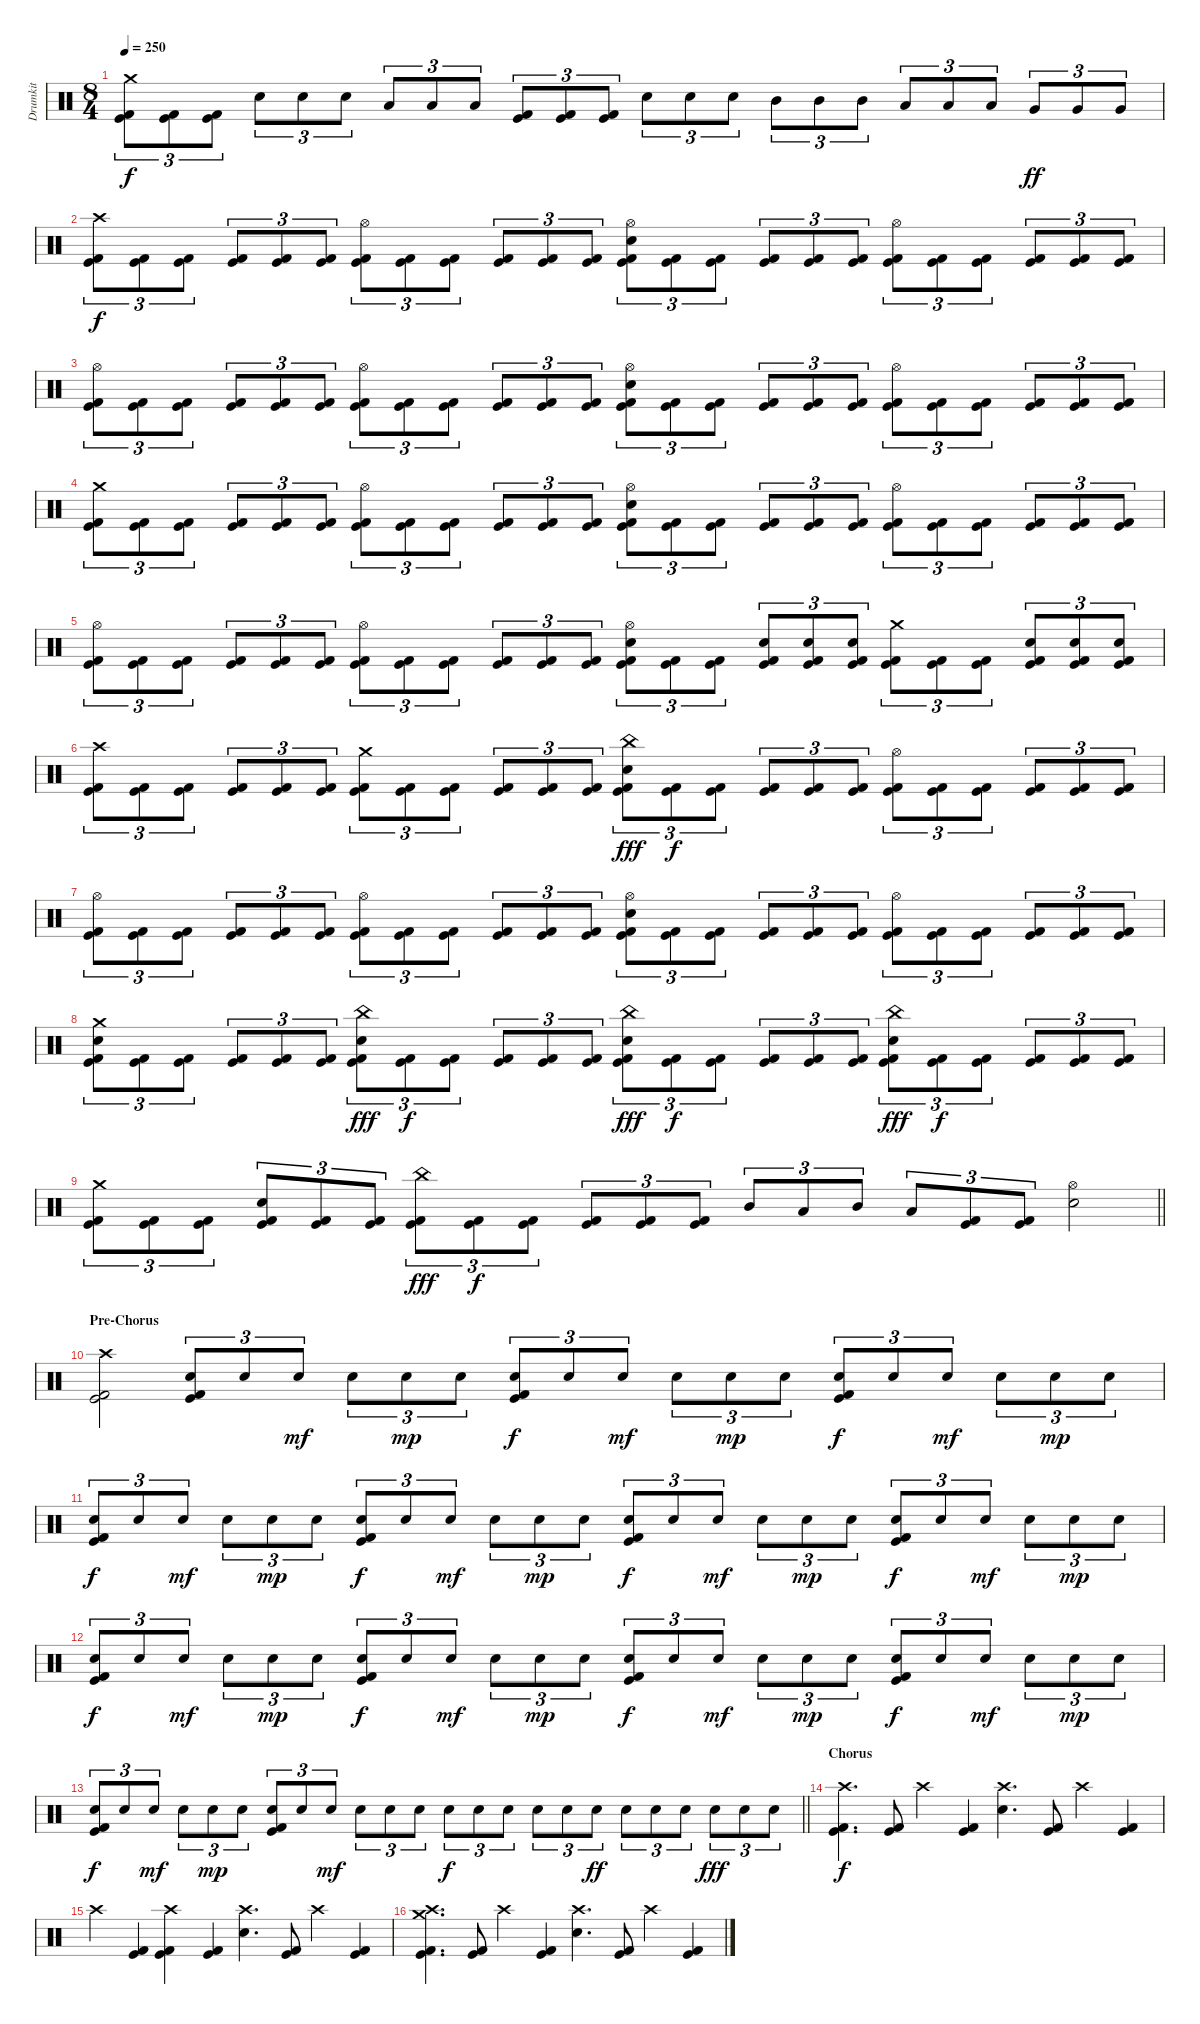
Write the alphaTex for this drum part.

\track ("Drumkit" "Drumkit") {instrument percussion}
\staff {score}
\articulation defaults
\ts (8 4)
\tempo 250
\clef neutral
\ks c
("Crash medium (hit)" "Kick (hit)" "Kick (hit) 2").8{tu (3 2) dy f} ("Kick (hit)" "Kick (hit) 2").8{tu (3 2)} ("Kick (hit)" "Kick (hit) 2").8{tu (3 2)} "Electric Snare (hit)".8{tu (3 2)} "Electric Snare (hit)".8{tu (3 2)} "Electric Snare (hit)".8{tu (3 2)} "Low Tom (hit)".8{tu (3 2)} "Low Tom (hit)".8{tu (3 2)} "Low Tom (hit)".8{tu (3 2)} ("Kick (hit)" "Kick (hit) 2").8{tu (3 2)} ("Kick (hit)" "Kick (hit) 2").8{tu (3 2)} ("Kick (hit)" "Kick (hit) 2").8{tu (3 2)} "Electric Snare (hit)".8{tu (3 2)} "Electric Snare (hit)".8{tu (3 2)} "Electric Snare (hit)".8{tu (3 2)} "Mid Tom (hit)".8{tu (3 2)} "Mid Tom (hit)".8{tu (3 2)} "Mid Tom (hit)".8{tu (3 2)} "Low Tom (hit)".8{tu (3 2)} "Low Tom (hit)".8{tu (3 2)} "Low Tom (hit)".8{tu (3 2)} "Very Low Tom (hit)".8{tu (3 2) dy ff} "Very Low Tom (hit)".8{tu (3 2)} "Very Low Tom (hit)".8{tu (3 2)} |
("Crash high (hit)" "Kick (hit)" "Kick (hit) 2").8{tu (3 2) dy f} ("Kick (hit)" "Kick (hit) 2").8{tu (3 2)} ("Kick (hit)" "Kick (hit) 2").8{tu (3 2)} ("Kick (hit)" "Kick (hit) 2").8{tu (3 2)} ("Kick (hit)" "Kick (hit) 2").8{tu (3 2)} ("Kick (hit)" "Kick (hit) 2").8{tu (3 2)} ("Hi-Hat (open)" "Kick (hit)" "Kick (hit) 2").8{tu (3 2)} ("Kick (hit)" "Kick (hit) 2").8{tu (3 2)} ("Kick (hit)" "Kick (hit) 2").8{tu (3 2)} ("Kick (hit)" "Kick (hit) 2").8{tu (3 2)} ("Kick (hit)" "Kick (hit) 2").8{tu (3 2)} ("Kick (hit)" "Kick (hit) 2").8{tu (3 2)} ("Hi-Hat (open)" "Electric Snare (hit)" "Kick (hit)" "Kick (hit) 2").8{tu (3 2)} ("Kick (hit)" "Kick (hit) 2").8{tu (3 2)} ("Kick (hit)" "Kick (hit) 2").8{tu (3 2)} ("Kick (hit)" "Kick (hit) 2").8{tu (3 2)} ("Kick (hit)" "Kick (hit) 2").8{tu (3 2)} ("Kick (hit)" "Kick (hit) 2").8{tu (3 2)} ("Hi-Hat (open)" "Kick (hit)" "Kick (hit) 2").8{tu (3 2)} ("Kick (hit)" "Kick (hit) 2").8{tu (3 2)} ("Kick (hit)" "Kick (hit) 2").8{tu (3 2)} ("Kick (hit)" "Kick (hit) 2").8{tu (3 2)} ("Kick (hit)" "Kick (hit) 2").8{tu (3 2)} ("Kick (hit)" "Kick (hit) 2").8{tu (3 2)} |
("Hi-Hat (open)" "Kick (hit)" "Kick (hit) 2").8{tu (3 2)} ("Kick (hit)" "Kick (hit) 2").8{tu (3 2)} ("Kick (hit)" "Kick (hit) 2").8{tu (3 2)} ("Kick (hit)" "Kick (hit) 2").8{tu (3 2)} ("Kick (hit)" "Kick (hit) 2").8{tu (3 2)} ("Kick (hit)" "Kick (hit) 2").8{tu (3 2)} ("Hi-Hat (open)" "Kick (hit)" "Kick (hit) 2").8{tu (3 2)} ("Kick (hit)" "Kick (hit) 2").8{tu (3 2)} ("Kick (hit)" "Kick (hit) 2").8{tu (3 2)} ("Kick (hit)" "Kick (hit) 2").8{tu (3 2)} ("Kick (hit)" "Kick (hit) 2").8{tu (3 2)} ("Kick (hit)" "Kick (hit) 2").8{tu (3 2)} ("Hi-Hat (open)" "Electric Snare (hit)" "Kick (hit)" "Kick (hit) 2").8{tu (3 2)} ("Kick (hit)" "Kick (hit) 2").8{tu (3 2)} ("Kick (hit)" "Kick (hit) 2").8{tu (3 2)} ("Kick (hit)" "Kick (hit) 2").8{tu (3 2)} ("Kick (hit)" "Kick (hit) 2").8{tu (3 2)} ("Kick (hit)" "Kick (hit) 2").8{tu (3 2)} ("Hi-Hat (open)" "Kick (hit)" "Kick (hit) 2").8{tu (3 2)} ("Kick (hit)" "Kick (hit) 2").8{tu (3 2)} ("Kick (hit)" "Kick (hit) 2").8{tu (3 2)} ("Kick (hit)" "Kick (hit) 2").8{tu (3 2)} ("Kick (hit)" "Kick (hit) 2").8{tu (3 2)} ("Kick (hit)" "Kick (hit) 2").8{tu (3 2)} |
("Crash medium (hit)" "Kick (hit)" "Kick (hit) 2").8{tu (3 2)} ("Kick (hit)" "Kick (hit) 2").8{tu (3 2)} ("Kick (hit)" "Kick (hit) 2").8{tu (3 2)} ("Kick (hit)" "Kick (hit) 2").8{tu (3 2)} ("Kick (hit)" "Kick (hit) 2").8{tu (3 2)} ("Kick (hit)" "Kick (hit) 2").8{tu (3 2)} ("Hi-Hat (open)" "Kick (hit)" "Kick (hit) 2").8{tu (3 2)} ("Kick (hit)" "Kick (hit) 2").8{tu (3 2)} ("Kick (hit)" "Kick (hit) 2").8{tu (3 2)} ("Kick (hit)" "Kick (hit) 2").8{tu (3 2)} ("Kick (hit)" "Kick (hit) 2").8{tu (3 2)} ("Kick (hit)" "Kick (hit) 2").8{tu (3 2)} ("Hi-Hat (open)" "Electric Snare (hit)" "Kick (hit)" "Kick (hit) 2").8{tu (3 2)} ("Kick (hit)" "Kick (hit) 2").8{tu (3 2)} ("Kick (hit)" "Kick (hit) 2").8{tu (3 2)} ("Kick (hit)" "Kick (hit) 2").8{tu (3 2)} ("Kick (hit)" "Kick (hit) 2").8{tu (3 2)} ("Kick (hit)" "Kick (hit) 2").8{tu (3 2)} ("Hi-Hat (open)" "Kick (hit)" "Kick (hit) 2").8{tu (3 2)} ("Kick (hit)" "Kick (hit) 2").8{tu (3 2)} ("Kick (hit)" "Kick (hit) 2").8{tu (3 2)} ("Kick (hit)" "Kick (hit) 2").8{tu (3 2)} ("Kick (hit)" "Kick (hit) 2").8{tu (3 2)} ("Kick (hit)" "Kick (hit) 2").8{tu (3 2)} |
("Hi-Hat (open)" "Kick (hit)" "Kick (hit) 2").8{tu (3 2)} ("Kick (hit)" "Kick (hit) 2").8{tu (3 2)} ("Kick (hit)" "Kick (hit) 2").8{tu (3 2)} ("Kick (hit)" "Kick (hit) 2").8{tu (3 2)} ("Kick (hit)" "Kick (hit) 2").8{tu (3 2)} ("Kick (hit)" "Kick (hit) 2").8{tu (3 2)} ("Hi-Hat (open)" "Kick (hit)" "Kick (hit) 2").8{tu (3 2)} ("Kick (hit)" "Kick (hit) 2").8{tu (3 2)} ("Kick (hit)" "Kick (hit) 2").8{tu (3 2)} ("Kick (hit)" "Kick (hit) 2").8{tu (3 2)} ("Kick (hit)" "Kick (hit) 2").8{tu (3 2)} ("Kick (hit)" "Kick (hit) 2").8{tu (3 2)} ("Hi-Hat (open)" "Electric Snare (hit)" "Kick (hit)" "Kick (hit) 2").8{tu (3 2)} ("Kick (hit)" "Kick (hit) 2").8{tu (3 2)} ("Kick (hit)" "Kick (hit) 2").8{tu (3 2)} ("Electric Snare (hit)" "Kick (hit)" "Kick (hit) 2").8{tu (3 2)} ("Electric Snare (hit)" "Kick (hit)" "Kick (hit) 2").8{tu (3 2)} ("Electric Snare (hit)" "Kick (hit)" "Kick (hit) 2").8{tu (3 2)} ("Crash medium (hit)" "Kick (hit)" "Kick (hit) 2").8{tu (3 2)} ("Kick (hit)" "Kick (hit) 2").8{tu (3 2)} ("Kick (hit)" "Kick (hit) 2").8{tu (3 2)} ("Electric Snare (hit)" "Kick (hit)" "Kick (hit) 2").8{tu (3 2)} ("Electric Snare (hit)" "Kick (hit)" "Kick (hit) 2").8{tu (3 2)} ("Electric Snare (hit)" "Kick (hit)" "Kick (hit) 2").8{tu (3 2)} |
("Crash high (hit)" "Kick (hit)" "Kick (hit) 2").8{tu (3 2)} ("Kick (hit)" "Kick (hit) 2").8{tu (3 2)} ("Kick (hit)" "Kick (hit) 2").8{tu (3 2)} ("Kick (hit)" "Kick (hit) 2").8{tu (3 2)} ("Kick (hit)" "Kick (hit) 2").8{tu (3 2)} ("Kick (hit)" "Kick (hit) 2").8{tu (3 2)} ("Crash medium (hit)" "Kick (hit)" "Kick (hit) 2").8{tu (3 2)} ("Kick (hit)" "Kick (hit) 2").8{tu (3 2)} ("Kick (hit)" "Kick (hit) 2").8{tu (3 2)} ("Kick (hit)" "Kick (hit) 2").8{tu (3 2)} ("Kick (hit)" "Kick (hit) 2").8{tu (3 2)} ("Kick (hit)" "Kick (hit) 2").8{tu (3 2)} ("China (hit)" "Electric Snare (hit)" "Kick (hit)" "Kick (hit) 2").8{tu (3 2) dy fff} ("Kick (hit)" "Kick (hit) 2").8{tu (3 2) dy f} ("Kick (hit)" "Kick (hit) 2").8{tu (3 2)} ("Kick (hit)" "Kick (hit) 2").8{tu (3 2)} ("Kick (hit)" "Kick (hit) 2").8{tu (3 2)} ("Kick (hit)" "Kick (hit) 2").8{tu (3 2)} ("Hi-Hat (open)" "Kick (hit)" "Kick (hit) 2").8{tu (3 2)} ("Kick (hit)" "Kick (hit) 2").8{tu (3 2)} ("Kick (hit)" "Kick (hit) 2").8{tu (3 2)} ("Kick (hit)" "Kick (hit) 2").8{tu (3 2)} ("Kick (hit)" "Kick (hit) 2").8{tu (3 2)} ("Kick (hit)" "Kick (hit) 2").8{tu (3 2)} |
("Hi-Hat (open)" "Kick (hit)" "Kick (hit) 2").8{tu (3 2)} ("Kick (hit)" "Kick (hit) 2").8{tu (3 2)} ("Kick (hit)" "Kick (hit) 2").8{tu (3 2)} ("Kick (hit)" "Kick (hit) 2").8{tu (3 2)} ("Kick (hit)" "Kick (hit) 2").8{tu (3 2)} ("Kick (hit)" "Kick (hit) 2").8{tu (3 2)} ("Hi-Hat (open)" "Kick (hit)" "Kick (hit) 2").8{tu (3 2)} ("Kick (hit)" "Kick (hit) 2").8{tu (3 2)} ("Kick (hit)" "Kick (hit) 2").8{tu (3 2)} ("Kick (hit)" "Kick (hit) 2").8{tu (3 2)} ("Kick (hit)" "Kick (hit) 2").8{tu (3 2)} ("Kick (hit)" "Kick (hit) 2").8{tu (3 2)} ("Hi-Hat (open)" "Electric Snare (hit)" "Kick (hit)" "Kick (hit) 2").8{tu (3 2)} ("Kick (hit)" "Kick (hit) 2").8{tu (3 2)} ("Kick (hit)" "Kick (hit) 2").8{tu (3 2)} ("Kick (hit)" "Kick (hit) 2").8{tu (3 2)} ("Kick (hit)" "Kick (hit) 2").8{tu (3 2)} ("Kick (hit)" "Kick (hit) 2").8{tu (3 2)} ("Hi-Hat (open)" "Kick (hit)" "Kick (hit) 2").8{tu (3 2)} ("Kick (hit)" "Kick (hit) 2").8{tu (3 2)} ("Kick (hit)" "Kick (hit) 2").8{tu (3 2)} ("Kick (hit)" "Kick (hit) 2").8{tu (3 2)} ("Kick (hit)" "Kick (hit) 2").8{tu (3 2)} ("Kick (hit)" "Kick (hit) 2").8{tu (3 2)} |
("Crash medium (hit)" "Electric Snare (hit)" "Kick (hit)" "Kick (hit) 2").8{tu (3 2)} ("Kick (hit)" "Kick (hit) 2").8{tu (3 2)} ("Kick (hit)" "Kick (hit) 2").8{tu (3 2)} ("Kick (hit)" "Kick (hit) 2").8{tu (3 2)} ("Kick (hit)" "Kick (hit) 2").8{tu (3 2)} ("Kick (hit)" "Kick (hit) 2").8{tu (3 2)} ("China (hit)" "Electric Snare (hit)" "Kick (hit)" "Kick (hit) 2").8{tu (3 2) dy fff} ("Kick (hit)" "Kick (hit) 2").8{tu (3 2) dy f} ("Kick (hit)" "Kick (hit) 2").8{tu (3 2)} ("Kick (hit)" "Kick (hit) 2").8{tu (3 2)} ("Kick (hit)" "Kick (hit) 2").8{tu (3 2)} ("Kick (hit)" "Kick (hit) 2").8{tu (3 2)} ("China (hit)" "Electric Snare (hit)" "Kick (hit)" "Kick (hit) 2").8{tu (3 2) dy fff} ("Kick (hit)" "Kick (hit) 2").8{tu (3 2) dy f} ("Kick (hit)" "Kick (hit) 2").8{tu (3 2)} ("Kick (hit)" "Kick (hit) 2").8{tu (3 2)} ("Kick (hit)" "Kick (hit) 2").8{tu (3 2)} ("Kick (hit)" "Kick (hit) 2").8{tu (3 2)} ("China (hit)" "Electric Snare (hit)" "Kick (hit)" "Kick (hit) 2").8{tu (3 2) dy fff} ("Kick (hit)" "Kick (hit) 2").8{tu (3 2) dy f} ("Kick (hit)" "Kick (hit) 2").8{tu (3 2)} ("Kick (hit)" "Kick (hit) 2").8{tu (3 2)} ("Kick (hit)" "Kick (hit) 2").8{tu (3 2)} ("Kick (hit)" "Kick (hit) 2").8{tu (3 2)} |
\barLineRight lightlight
("Crash medium (hit)" "Kick (hit)" "Kick (hit) 2").8{tu (3 2)} ("Kick (hit)" "Kick (hit) 2").8{tu (3 2)} ("Kick (hit)" "Kick (hit) 2").8{tu (3 2)} ("Electric Snare (hit)" "Kick (hit)" "Kick (hit) 2").8{tu (3 2)} ("Kick (hit)" "Kick (hit) 2").8{tu (3 2)} ("Kick (hit)" "Kick (hit) 2").8{tu (3 2)} ("China (hit)" "Kick (hit)" "Kick (hit) 2").8{tu (3 2) dy fff} ("Kick (hit)" "Kick (hit) 2").8{tu (3 2) dy f} ("Kick (hit)" "Kick (hit) 2").8{tu (3 2)} ("Kick (hit)" "Kick (hit) 2").8{tu (3 2)} ("Kick (hit)" "Kick (hit) 2").8{tu (3 2)} ("Kick (hit)" "Kick (hit) 2").8{tu (3 2)} "Mid Tom (hit)".8{tu (3 2)} "Low Tom (hit)".8{tu (3 2)} "Mid Tom (hit)".8{tu (3 2)} "Low Tom (hit)".8{tu (3 2)} ("Kick (hit)" "Kick (hit) 2").8{tu (3 2)} ("Kick (hit)" "Kick (hit) 2").8{tu (3 2)} ("Hi-Hat (open)" "Electric Snare (hit)").2 |
\section ("" "Pre-Chorus")
("Crash high (hit)" "Kick (hit)" "Kick (hit) 2").2 ("Electric Snare (hit)" "Kick (hit)" "Kick (hit) 2").8{tu (3 2)} "Electric Snare (hit)".8{tu (3 2)} "Electric Snare (hit)".8{tu (3 2) dy mf} "Electric Snare (hit)".8{tu (3 2)} "Electric Snare (hit)".8{tu (3 2) dy mp} "Electric Snare (hit)".8{tu (3 2)} ("Electric Snare (hit)" "Kick (hit)" "Kick (hit) 2").8{tu (3 2) dy f} "Electric Snare (hit)".8{tu (3 2)} "Electric Snare (hit)".8{tu (3 2) dy mf} "Electric Snare (hit)".8{tu (3 2)} "Electric Snare (hit)".8{tu (3 2) dy mp} "Electric Snare (hit)".8{tu (3 2)} ("Electric Snare (hit)" "Kick (hit)" "Kick (hit) 2").8{tu (3 2) dy f} "Electric Snare (hit)".8{tu (3 2)} "Electric Snare (hit)".8{tu (3 2) dy mf} "Electric Snare (hit)".8{tu (3 2)} "Electric Snare (hit)".8{tu (3 2) dy mp} "Electric Snare (hit)".8{tu (3 2)} |
("Electric Snare (hit)" "Kick (hit)" "Kick (hit) 2").8{tu (3 2) dy f} "Electric Snare (hit)".8{tu (3 2)} "Electric Snare (hit)".8{tu (3 2) dy mf} "Electric Snare (hit)".8{tu (3 2)} "Electric Snare (hit)".8{tu (3 2) dy mp} "Electric Snare (hit)".8{tu (3 2)} ("Electric Snare (hit)" "Kick (hit)" "Kick (hit) 2").8{tu (3 2) dy f} "Electric Snare (hit)".8{tu (3 2)} "Electric Snare (hit)".8{tu (3 2) dy mf} "Electric Snare (hit)".8{tu (3 2)} "Electric Snare (hit)".8{tu (3 2) dy mp} "Electric Snare (hit)".8{tu (3 2)} ("Electric Snare (hit)" "Kick (hit)" "Kick (hit) 2").8{tu (3 2) dy f} "Electric Snare (hit)".8{tu (3 2)} "Electric Snare (hit)".8{tu (3 2) dy mf} "Electric Snare (hit)".8{tu (3 2)} "Electric Snare (hit)".8{tu (3 2) dy mp} "Electric Snare (hit)".8{tu (3 2)} ("Electric Snare (hit)" "Kick (hit)" "Kick (hit) 2").8{tu (3 2) dy f} "Electric Snare (hit)".8{tu (3 2)} "Electric Snare (hit)".8{tu (3 2) dy mf} "Electric Snare (hit)".8{tu (3 2)} "Electric Snare (hit)".8{tu (3 2) dy mp} "Electric Snare (hit)".8{tu (3 2)} |
("Electric Snare (hit)" "Kick (hit)" "Kick (hit) 2").8{tu (3 2) dy f} "Electric Snare (hit)".8{tu (3 2)} "Electric Snare (hit)".8{tu (3 2) dy mf} "Electric Snare (hit)".8{tu (3 2)} "Electric Snare (hit)".8{tu (3 2) dy mp} "Electric Snare (hit)".8{tu (3 2)} ("Electric Snare (hit)" "Kick (hit)" "Kick (hit) 2").8{tu (3 2) dy f} "Electric Snare (hit)".8{tu (3 2)} "Electric Snare (hit)".8{tu (3 2) dy mf} "Electric Snare (hit)".8{tu (3 2)} "Electric Snare (hit)".8{tu (3 2) dy mp} "Electric Snare (hit)".8{tu (3 2)} ("Electric Snare (hit)" "Kick (hit)" "Kick (hit) 2").8{tu (3 2) dy f} "Electric Snare (hit)".8{tu (3 2)} "Electric Snare (hit)".8{tu (3 2) dy mf} "Electric Snare (hit)".8{tu (3 2)} "Electric Snare (hit)".8{tu (3 2) dy mp} "Electric Snare (hit)".8{tu (3 2)} ("Electric Snare (hit)" "Kick (hit)" "Kick (hit) 2").8{tu (3 2) dy f} "Electric Snare (hit)".8{tu (3 2)} "Electric Snare (hit)".8{tu (3 2) dy mf} "Electric Snare (hit)".8{tu (3 2)} "Electric Snare (hit)".8{tu (3 2) dy mp} "Electric Snare (hit)".8{tu (3 2)} |
\barLineRight lightlight
("Electric Snare (hit)" "Kick (hit)" "Kick (hit) 2").8{tu (3 2) dy f} "Electric Snare (hit)".8{tu (3 2)} "Electric Snare (hit)".8{tu (3 2) dy mf} "Electric Snare (hit)".8{tu (3 2)} "Electric Snare (hit)".8{tu (3 2) dy mp} "Electric Snare (hit)".8{tu (3 2)} ("Electric Snare (hit)" "Kick (hit)" "Kick (hit) 2").8{tu (3 2)} "Electric Snare (hit)".8{tu (3 2)} "Electric Snare (hit)".8{tu (3 2) dy mf} "Electric Snare (hit)".8{tu (3 2)} "Electric Snare (hit)".8{tu (3 2)} "Electric Snare (hit)".8{tu (3 2)} "Electric Snare (hit)".8{tu (3 2) dy f} "Electric Snare (hit)".8{tu (3 2)} "Electric Snare (hit)".8{tu (3 2)} "Electric Snare (hit)".8{tu (3 2)} "Electric Snare (hit)".8{tu (3 2)} "Electric Snare (hit)".8{tu (3 2) dy ff} "Electric Snare (hit)".8{tu (3 2)} "Electric Snare (hit)".8{tu (3 2)} "Electric Snare (hit)".8{tu (3 2)} "Electric Snare (hit)".8{tu (3 2) dy fff} "Electric Snare (hit)".8{tu (3 2)} "Electric Snare (hit)".8{tu (3 2)} |
\section ("" "Chorus")
("Crash high (hit)" "Kick (hit)" "Kick (hit) 2").4{d dy f} ("Kick (hit)" "Kick (hit) 2").8 "Crash high (hit)".4 ("Kick (hit)" "Kick (hit) 2").4 ("Crash high (hit)" "Electric Snare (hit)").4{d} ("Kick (hit)" "Kick (hit) 2").8 "Crash high (hit)".4 ("Kick (hit)" "Kick (hit) 2").4 |
"Crash high (hit)".4 ("Kick (hit)" "Kick (hit) 2").4 ("Crash high (hit)" "Kick (hit)" "Kick (hit) 2").4 ("Kick (hit)" "Kick (hit) 2").4 ("Crash high (hit)" "Electric Snare (hit)").4{d} ("Kick (hit)" "Kick (hit) 2").8 "Crash high (hit)".4 ("Kick (hit)" "Kick (hit) 2").4 |
("Crash high (hit)" "Crash medium (hit)" "Kick (hit)" "Kick (hit) 2").4{d} ("Kick (hit)" "Kick (hit) 2").8 "Crash high (hit)".4 ("Kick (hit)" "Kick (hit) 2").4 ("Crash high (hit)" "Electric Snare (hit)").4{d} ("Kick (hit)" "Kick (hit) 2").8 "Crash high (hit)".4 ("Kick (hit)" "Kick (hit) 2").4
